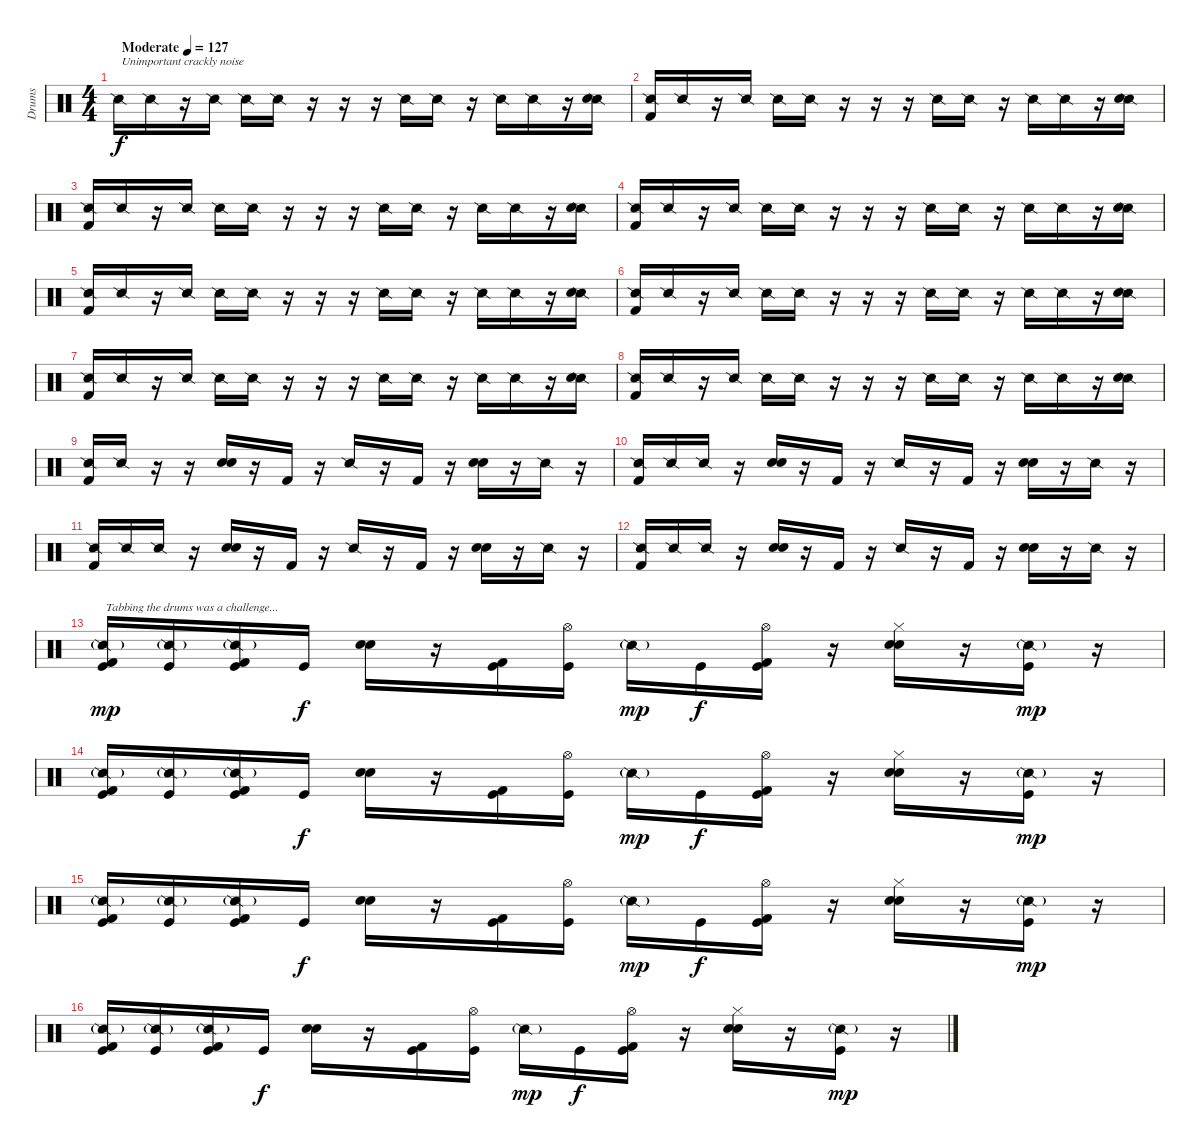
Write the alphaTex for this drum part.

\track ("Drums" "Drums") {instrument percussion}
\staff {score}
\articulation defaults
\ts (4 4)
\tempo (127 "Moderate")
\clef neutral
\ks c "Snare (side stick) 2".16{txt "Unimportant crackly noise" dy f volume 5} "Snare (side stick) 2".16
r.16 "Snare (side stick) 2".16 "Snare (side stick) 2".16 "Snare (side stick) 2".16 r.16 r.16 r.16 "Snare (side stick) 2".16 "Snare (side stick) 2".16 r.16 "Snare (side stick) 2".16 "Snare (side stick) 2".16 r.16 ("Snare (side stick) 2" "Hand Clap (hit)").16 |
("Snare (side stick) 2" "Kick (hit) 2").16 "Snare (side stick) 2".16 r.16 "Snare (side stick) 2".16 "Snare (side stick) 2".16 "Snare (side stick) 2".16 r.16 r.16 r.16 "Snare (side stick) 2".16 "Snare (side stick) 2".16 r.16 "Snare (side stick) 2".16 "Snare (side stick) 2".16 r.16 ("Snare (side stick) 2" "Hand Clap (hit)").16 |
("Snare (side stick) 2" "Kick (hit) 2").16 "Snare (side stick) 2".16 r.16 "Snare (side stick) 2".16 "Snare (side stick) 2".16 "Snare (side stick) 2".16 r.16 r.16 r.16 "Snare (side stick) 2".16 "Snare (side stick) 2".16 r.16 "Snare (side stick) 2".16 "Snare (side stick) 2".16 r.16 ("Snare (side stick) 2" "Hand Clap (hit)").16 |
("Snare (side stick) 2" "Kick (hit) 2").16 "Snare (side stick) 2".16 r.16 "Snare (side stick) 2".16 "Snare (side stick) 2".16 "Snare (side stick) 2".16 r.16 r.16 r.16 "Snare (side stick) 2".16 "Snare (side stick) 2".16 r.16 "Snare (side stick) 2".16 "Snare (side stick) 2".16 r.16 ("Snare (side stick) 2" "Hand Clap (hit)").16 |
("Snare (side stick) 2" "Kick (hit) 2").16 "Snare (side stick) 2".16 r.16 "Snare (side stick) 2".16 "Snare (side stick) 2".16 "Snare (side stick) 2".16 r.16 r.16 r.16 "Snare (side stick) 2".16 "Snare (side stick) 2".16 r.16 "Snare (side stick) 2".16 "Snare (side stick) 2".16 r.16 ("Snare (side stick) 2" "Hand Clap (hit)").16 |
("Snare (side stick) 2" "Kick (hit) 2").16 "Snare (side stick) 2".16 r.16 "Snare (side stick) 2".16 "Snare (side stick) 2".16 "Snare (side stick) 2".16 r.16 r.16 r.16 "Snare (side stick) 2".16 "Snare (side stick) 2".16 r.16 "Snare (side stick) 2".16 "Snare (side stick) 2".16 r.16 ("Snare (side stick) 2" "Hand Clap (hit)").16 |
("Snare (side stick) 2" "Kick (hit) 2").16 "Snare (side stick) 2".16 r.16 "Snare (side stick) 2".16 "Snare (side stick) 2".16 "Snare (side stick) 2".16 r.16 r.16 r.16 "Snare (side stick) 2".16 "Snare (side stick) 2".16 r.16 "Snare (side stick) 2".16 "Snare (side stick) 2".16 r.16 ("Snare (side stick) 2" "Hand Clap (hit)").16 |
("Snare (side stick) 2" "Kick (hit) 2").16 "Snare (side stick) 2".16 r.16 "Snare (side stick) 2".16 "Snare (side stick) 2".16 "Snare (side stick) 2".16 r.16 r.16 r.16 "Snare (side stick) 2".16 "Snare (side stick) 2".16 r.16 "Snare (side stick) 2".16 "Snare (side stick) 2".16 r.16 ("Snare (side stick) 2" "Hand Clap (hit)").16 |
("Snare (side stick) 2" "Kick (hit) 2").16 "Snare (side stick) 2".16 r.16 r.16 ("Snare (hit) 2" "Hand Clap (hit)").16{volume 13} r.16 "Kick (hit) 2".16 r.16 "Snare (side stick) 2".16 r.16 "Kick (hit) 2".16 r.16 ("Snare (hit) 2" "Hand Clap (hit)").16 r.16 "Snare (side stick) 2".16 r.16 |
("Snare (side stick) 2" "Kick (hit) 2").16 "Snare (side stick) 2".16 "Snare (side stick) 2".16 r.16 ("Snare (hit) 2" "Hand Clap (hit)").16 r.16 "Kick (hit) 2".16 r.16 "Snare (side stick) 2".16 r.16 "Kick (hit) 2".16 r.16 ("Snare (hit) 2" "Hand Clap (hit)").16 r.16 "Snare (side stick) 2".16 r.16 |
("Snare (side stick) 2" "Kick (hit) 2").16 "Snare (side stick) 2".16 "Snare (side stick) 2".16 r.16 ("Snare (hit) 2" "Hand Clap (hit)").16 r.16 "Kick (hit) 2".16 r.16 "Snare (side stick) 2".16 r.16 "Kick (hit) 2".16 r.16 ("Snare (hit) 2" "Hand Clap (hit)").16 r.16 "Snare (side stick) 2".16 r.16 |
("Snare (side stick) 2" "Kick (hit) 2").16 "Snare (side stick) 2".16 "Snare (side stick) 2".16 r.16 ("Snare (hit) 2" "Hand Clap (hit)").16 r.16 "Kick (hit) 2".16 r.16 "Snare (side stick) 2".16 r.16 "Kick (hit) 2".16 r.16 ("Snare (hit) 2" "Hand Clap (hit)").16 r.16 "Snare (side stick) 2".16 r.16 |
("Snare (side stick) 2"{g} "Kick (hit) 2" "Kick (hit)").16{txt "Tabbing the drums was a challenge..." dy mp} ("Snare (side stick) 2"{g} "Kick (hit)").16 ("Snare (side stick) 2"{g} "Kick (hit) 2" "Kick (hit)").16 "Kick (hit)".16{dy f} ("Snare (hit) 2" "Hand Clap (hit)").16 r.16 ("Kick (hit) 2" "Kick (hit)").16 ("Hi-Hat (open)" "Kick (hit)").16 "Snare (side stick) 2"{g}.16{dy mp} "Kick (hit)".16{dy f} ("Hi-Hat (open)" "Kick (hit) 2" "Kick (hit)").16 r.16 ("Hi-Hat (closed)" "Snare (hit) 2" "Hand Clap (hit)").16 r.16 ("Snare (side stick) 2"{g} "Kick (hit)").16{dy mp} r.16 |
("Snare (side stick) 2"{g} "Kick (hit) 2" "Kick (hit)").16 ("Snare (side stick) 2"{g} "Kick (hit)").16 ("Snare (side stick) 2"{g} "Kick (hit) 2" "Kick (hit)").16 "Kick (hit)".16{dy f} ("Snare (hit) 2" "Hand Clap (hit)").16 r.16 ("Kick (hit) 2" "Kick (hit)").16 ("Hi-Hat (open)" "Kick (hit)").16 "Snare (side stick) 2"{g}.16{dy mp} "Kick (hit)".16{dy f} ("Hi-Hat (open)" "Kick (hit) 2" "Kick (hit)").16 r.16 ("Hi-Hat (closed)" "Snare (hit) 2" "Hand Clap (hit)").16 r.16 ("Snare (side stick) 2"{g} "Kick (hit)").16{dy mp} r.16 |
("Snare (side stick) 2"{g} "Kick (hit) 2" "Kick (hit)").16 ("Snare (side stick) 2"{g} "Kick (hit)").16 ("Snare (side stick) 2"{g} "Kick (hit) 2" "Kick (hit)").16 "Kick (hit)".16{dy f} ("Snare (hit) 2" "Hand Clap (hit)").16 r.16 ("Kick (hit) 2" "Kick (hit)").16 ("Hi-Hat (open)" "Kick (hit)").16 "Snare (side stick) 2"{g}.16{dy mp} "Kick (hit)".16{dy f} ("Hi-Hat (open)" "Kick (hit) 2" "Kick (hit)").16 r.16 ("Hi-Hat (closed)" "Snare (hit) 2" "Hand Clap (hit)").16 r.16 ("Snare (side stick) 2"{g} "Kick (hit)").16{dy mp} r.16 |
("Snare (side stick) 2"{g} "Kick (hit) 2" "Kick (hit)").16 ("Snare (side stick) 2"{g} "Kick (hit)").16 ("Snare (side stick) 2"{g} "Kick (hit) 2" "Kick (hit)").16 "Kick (hit)".16{dy f} ("Snare (hit) 2" "Hand Clap (hit)").16 r.16 ("Kick (hit) 2" "Kick (hit)").16 ("Hi-Hat (open)" "Kick (hit)").16 "Snare (side stick) 2"{g}.16{dy mp} "Kick (hit)".16{dy f} ("Hi-Hat (open)" "Kick (hit) 2" "Kick (hit)").16 r.16 ("Hi-Hat (closed)" "Snare (hit) 2" "Hand Clap (hit)").16 r.16 ("Snare (side stick) 2"{g} "Kick (hit)").16{dy mp} r.16
